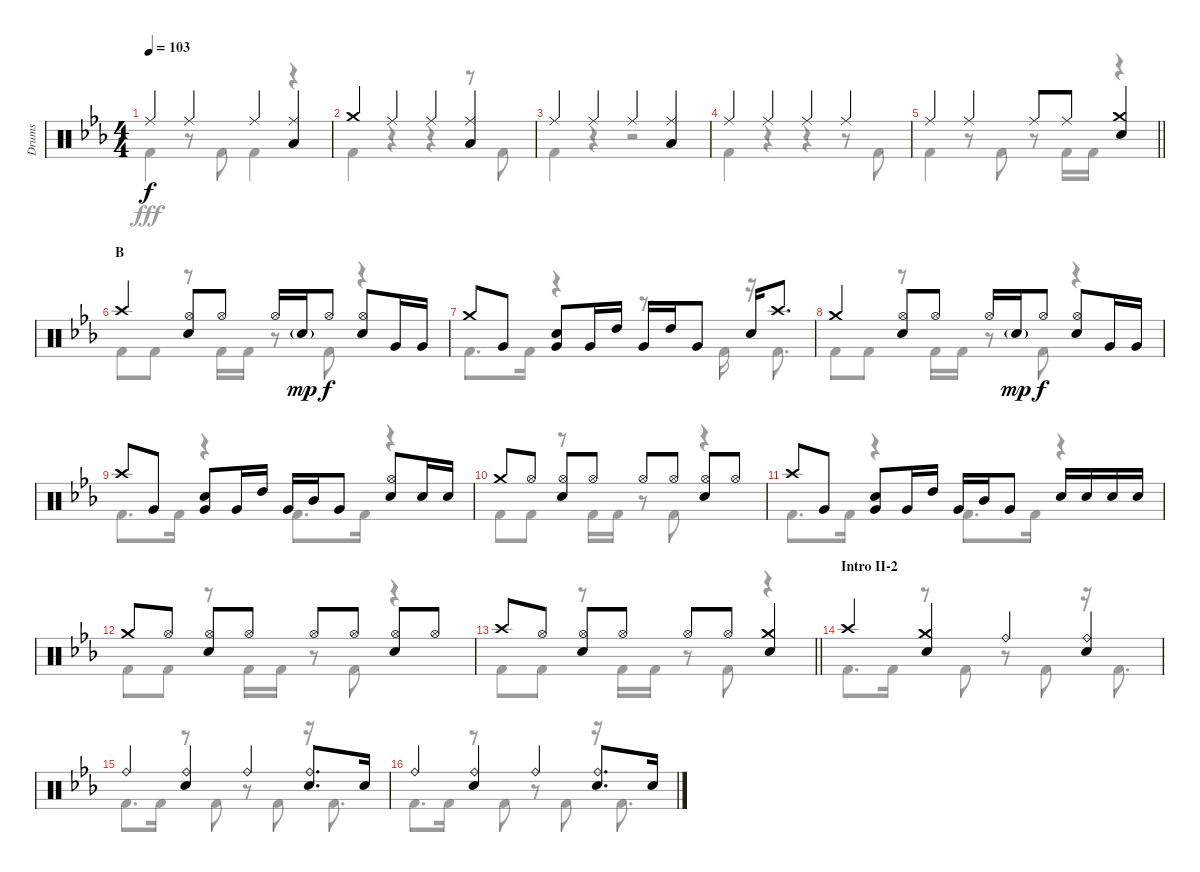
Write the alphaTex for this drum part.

\track ("Drums" "Drums") {instrument percussion}
\staff {score}
\articulation defaults
\voice
\ts (4 4)
\tempo 103
\clef neutral
\ks eb "Ride (middle)".4{dy f} "Ride (middle)".4 "Ride (middle)".4
("Ride (middle)" "Low Tom (hit)").4 |
"Crash medium (hit)".4 "Ride (middle)".4 "Ride (middle)".4 ("Ride (middle)" "Low Tom (hit)").4 |
"Ride (middle)".4 "Ride (middle)".4 "Ride (middle)".4 ("Ride (middle)" "Low Tom (hit)").4 |
"Ride (middle)".4 "Ride (middle)".4 "Ride (middle)".4 "Ride (middle)".4 |
\barLineRight lightlight "Ride (middle)".4 "Ride (middle)".4 "Ride (middle)".8 "Ride (middle)".8
("Crash medium (hit)" "Snare (hit) 2").4 |
\section ("" "B")
"Crash high (hit)".4 ("Hi-Hat (open)" "Snare (hit) 2").8 "Hi-Hat (open)".8 "Hi-Hat (open)".16 "Snare (hit) 2"{g}.16{dy mp} "Hi-Hat (open)".8{dy f} ("Hi-Hat (open)" "Snare (hit) 2").8 "Very Low Tom (hit)".16 "Very Low Tom (hit)".16 |
"Crash medium (hit)".8 "Very Low Tom (hit)".8 ("Snare (hit) 2" "Very Low Tom (hit)").8 "Very Low Tom (hit)".16 "High Tom (hit)".16 "Very Low Tom (hit)".16 "High Tom (hit)".16 "Very Low Tom (hit)".8 "Snare (hit) 2".16 "Crash high (hit)".8{d} |
"Crash medium (hit)".4 ("Hi-Hat (open)" "Snare (hit) 2").8 "Hi-Hat (open)".8 "Hi-Hat (open)".16 "Snare (hit) 2"{g}.16{dy mp} "Hi-Hat (open)".8{dy f} ("Hi-Hat (open)" "Snare (hit) 2").8 "Very Low Tom (hit)".16 "Very Low Tom (hit)".16 |
"Crash high (hit)".8 "Very Low Tom (hit)".8 ("Snare (hit) 2" "Very Low Tom (hit)").8 "Very Low Tom (hit)".16 "High Tom (hit)".16 "Very Low Tom (hit)".16 "Mid Tom (hit)".16 "Very Low Tom (hit)".8 ("Hi-Hat (open)" "Snare (hit) 2").8 "Snare (hit) 2".16 "Snare (hit) 2".16 |
"Crash medium (hit)".8 "Hi-Hat (open)".8 ("Hi-Hat (open)" "Snare (hit) 2").8 "Hi-Hat (open)".8 "Hi-Hat (open)".8 "Hi-Hat (open)".8 ("Hi-Hat (open)" "Snare (hit) 2").8 "Hi-Hat (open)".8 |
"Crash high (hit)".8 "Very Low Tom (hit)".8 ("Snare (hit) 2" "Very Low Tom (hit)").8 "Very Low Tom (hit)".16 "High Tom (hit)".16 "Very Low Tom (hit)".16 "Mid Tom (hit)".16 "Very Low Tom (hit)".8 "Snare (hit) 2".16 "Snare (hit) 2".16 "Snare (hit) 2".16 "Snare (hit) 2".16 |
"Crash medium (hit)".8 "Hi-Hat (open)".8 ("Hi-Hat (open)" "Snare (hit) 2").8 "Hi-Hat (open)".8 "Hi-Hat (open)".8 "Hi-Hat (open)".8 ("Hi-Hat (open)" "Snare (hit) 2").8 "Hi-Hat (open)".8 |
\barLineRight lightlight "Crash high (hit)".8 "Hi-Hat (open)".8
("Hi-Hat (open)" "Snare (hit) 2").8 "Hi-Hat (open)".8 "Hi-Hat (open)".8 "Hi-Hat (open)".8 ("Crash medium (hit)" "Snare (hit) 2").4 |
\section ("" "Intro II-2")
"Crash high (hit)".4 ("Crash medium (hit)" "Snare (hit) 2").4 "Ride (bell)".4 ("Ride (bell)" "Snare (hit) 2").4 |
"Ride (bell)".4 ("Ride (bell)" "Snare (hit) 2").4 "Ride (bell)".4 ("Ride (bell)" "Snare (hit) 2").8{d} "Snare (hit) 2".16 |
"Ride (bell)".4 ("Ride (bell)" "Snare (hit) 2").4 "Ride (bell)".4 ("Ride (bell)" "Snare (hit) 2").8{d} "Snare (hit) 2".16
\voice
\clef neutral
\ottava regular
\simile none
\ks eb "Kick (hit) 2".4{dy fff}
r.8 "Kick (hit) 2".8 "Kick (hit) 2".4 r.4 |
"Kick (hit) 2".4 r.4 r.4 r.8 "Kick (hit) 2".8 |
"Kick (hit) 2".4 r.4 r.2 |
"Kick (hit) 2".4 r.4 r.4 r.8 "Kick (hit) 2".8 |
\barLineRight lightlight "Kick (hit) 2".4
r.8 "Kick (hit) 2".8 r.8 "Kick (hit) 2".16 "Kick (hit) 2".16 r.4 |
"Kick (hit) 2".8 "Kick (hit) 2".8 r.8 "Kick (hit) 2".16 "Kick (hit) 2".16 r.8 "Kick (hit) 2".8 r.4 |
"Kick (hit) 2".8{d} "Kick (hit) 2".16 r.4 r.8{d} "Kick (hit) 2".16 r.16 "Kick (hit) 2".8{d} |
"Kick (hit) 2".8 "Kick (hit) 2".8 r.8 "Kick (hit) 2".16 "Kick (hit) 2".16 r.8 "Kick (hit) 2".8 r.4 |
"Kick (hit) 2".8{d} "Kick (hit) 2".16 r.4 "Kick (hit) 2".8{d} "Kick (hit) 2".16 r.4 |
"Kick (hit) 2".8 "Kick (hit) 2".8 r.8 "Kick (hit) 2".16 "Kick (hit) 2".16 r.8 "Kick (hit) 2".8 r.4 |
"Kick (hit) 2".8{d} "Kick (hit) 2".16 r.4 "Kick (hit) 2".8{d} "Kick (hit) 2".16 r.4 |
"Kick (hit) 2".8 "Kick (hit) 2".8 r.8 "Kick (hit) 2".16 "Kick (hit) 2".16 r.8 "Kick (hit) 2".8 r.4 |
\barLineRight lightlight "Kick (hit) 2".8 "Kick (hit) 2".8
r.8 "Kick (hit) 2".16 "Kick (hit) 2".16 r.8 "Kick (hit) 2".8 r.4 |
"Kick (hit) 2".8{d} "Kick (hit) 2".16 r.8 "Kick (hit) 2".8 r.8 "Kick (hit) 2".8 r.16 "Kick (hit) 2".8{d} |
"Kick (hit) 2".8{d} "Kick (hit) 2".16 r.8 "Kick (hit) 2".8 r.8 "Kick (hit) 2".8 r.16 "Kick (hit) 2".8{d} |
"Kick (hit) 2".8{d} "Kick (hit) 2".16 r.8 "Kick (hit) 2".8 r.8 "Kick (hit) 2".8 r.16 "Kick (hit) 2".8{d}
